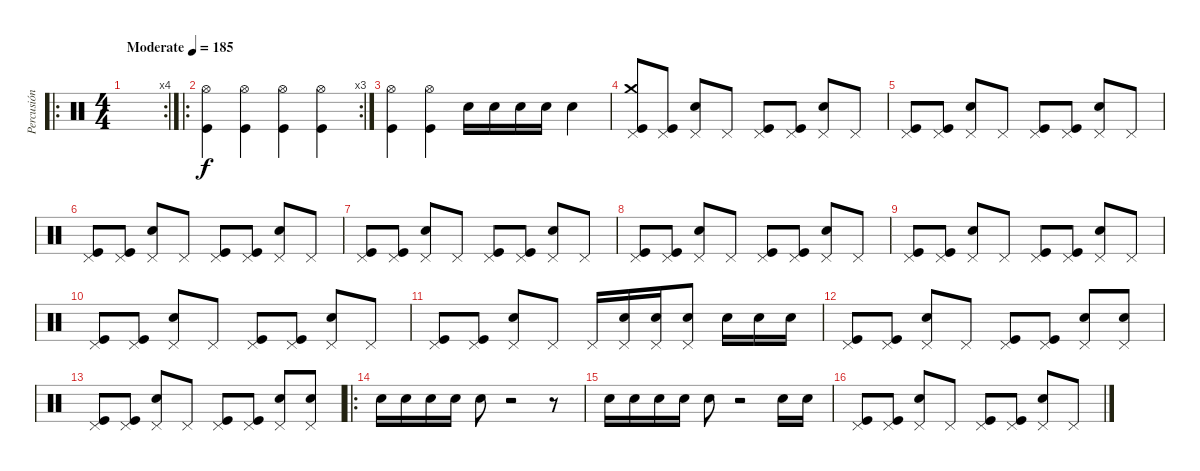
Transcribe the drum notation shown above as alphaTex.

\track ("Percusión" "Percusión") {instrument percussion}
\staff {score}
\articulation defaults
\ro
\rc 4
\ts (4 4)
\tempo (185 "Moderate")
\clef neutral
\ks c
|
\ro
\rc 3
("Hi-Hat (open)" "Kick (hit)").4 ("Hi-Hat (open)" "Kick (hit)").4 ("Hi-Hat (open)" "Kick (hit)").4 ("Hi-Hat (open)" "Kick (hit)").4 |
("Hi-Hat (open)" "Kick (hit)").4 ("Hi-Hat (open)" "Kick (hit)").4 "Electric Snare (hit)".16 "Electric Snare (hit)".16 "Electric Snare (hit)".16 "Electric Snare (hit)".16 "Electric Snare (hit)".4 |
("Crash medium (hit)" "Pedal Hi-Hat (hit)" "Kick (hit)").8 ("Pedal Hi-Hat (hit)" "Kick (hit)").8 ("Pedal Hi-Hat (hit)" "Electric Snare (hit)").8 "Pedal Hi-Hat (hit)".8 ("Pedal Hi-Hat (hit)" "Kick (hit)").8 ("Pedal Hi-Hat (hit)" "Kick (hit)").8 ("Pedal Hi-Hat (hit)" "Electric Snare (hit)").8 "Pedal Hi-Hat (hit)".8 |
("Pedal Hi-Hat (hit)" "Kick (hit)").8 ("Pedal Hi-Hat (hit)" "Kick (hit)").8 ("Pedal Hi-Hat (hit)" "Electric Snare (hit)").8 "Pedal Hi-Hat (hit)".8 ("Pedal Hi-Hat (hit)" "Kick (hit)").8 ("Pedal Hi-Hat (hit)" "Kick (hit)").8 ("Pedal Hi-Hat (hit)" "Electric Snare (hit)").8 "Pedal Hi-Hat (hit)".8 |
("Pedal Hi-Hat (hit)" "Kick (hit)").8 ("Pedal Hi-Hat (hit)" "Kick (hit)").8 ("Pedal Hi-Hat (hit)" "Electric Snare (hit)").8 "Pedal Hi-Hat (hit)".8 ("Pedal Hi-Hat (hit)" "Kick (hit)").8 ("Pedal Hi-Hat (hit)" "Kick (hit)").8 ("Pedal Hi-Hat (hit)" "Electric Snare (hit)").8 "Pedal Hi-Hat (hit)".8 |
("Pedal Hi-Hat (hit)" "Kick (hit)").8 ("Pedal Hi-Hat (hit)" "Kick (hit)").8 ("Pedal Hi-Hat (hit)" "Electric Snare (hit)").8 "Pedal Hi-Hat (hit)".8 ("Pedal Hi-Hat (hit)" "Kick (hit)").8 ("Pedal Hi-Hat (hit)" "Kick (hit)").8 ("Pedal Hi-Hat (hit)" "Electric Snare (hit)").8 "Pedal Hi-Hat (hit)".8 |
("Pedal Hi-Hat (hit)" "Kick (hit)").8 ("Pedal Hi-Hat (hit)" "Kick (hit)").8 ("Pedal Hi-Hat (hit)" "Electric Snare (hit)").8 "Pedal Hi-Hat (hit)".8 ("Pedal Hi-Hat (hit)" "Kick (hit)").8 ("Pedal Hi-Hat (hit)" "Kick (hit)").8 ("Pedal Hi-Hat (hit)" "Electric Snare (hit)").8 "Pedal Hi-Hat (hit)".8 |
("Pedal Hi-Hat (hit)" "Kick (hit)").8 ("Pedal Hi-Hat (hit)" "Kick (hit)").8 ("Pedal Hi-Hat (hit)" "Electric Snare (hit)").8 "Pedal Hi-Hat (hit)".8 ("Pedal Hi-Hat (hit)" "Kick (hit)").8 ("Pedal Hi-Hat (hit)" "Kick (hit)").8 ("Pedal Hi-Hat (hit)" "Electric Snare (hit)").8 "Pedal Hi-Hat (hit)".8 |
("Pedal Hi-Hat (hit)" "Kick (hit)").8 ("Pedal Hi-Hat (hit)" "Kick (hit)").8 ("Pedal Hi-Hat (hit)" "Electric Snare (hit)").8 "Pedal Hi-Hat (hit)".8 ("Pedal Hi-Hat (hit)" "Kick (hit)").8 ("Pedal Hi-Hat (hit)" "Kick (hit)").8 ("Pedal Hi-Hat (hit)" "Electric Snare (hit)").8 "Pedal Hi-Hat (hit)".8 |
("Pedal Hi-Hat (hit)" "Kick (hit)").8 ("Pedal Hi-Hat (hit)" "Kick (hit)").8 ("Pedal Hi-Hat (hit)" "Electric Snare (hit)").8 "Pedal Hi-Hat (hit)".8 "Pedal Hi-Hat (hit)".16 ("Pedal Hi-Hat (hit)" "Electric Snare (hit)").16 ("Pedal Hi-Hat (hit)" "Electric Snare (hit)").16 ("Pedal Hi-Hat (hit)" "Electric Snare (hit)").8 "Electric Snare (hit)".16 "Electric Snare (hit)".16 "Electric Snare (hit)".16 |
("Pedal Hi-Hat (hit)" "Kick (hit)").8 ("Pedal Hi-Hat (hit)" "Kick (hit)").8 ("Pedal Hi-Hat (hit)" "Electric Snare (hit)").8 "Pedal Hi-Hat (hit)".8 ("Pedal Hi-Hat (hit)" "Kick (hit)").8 ("Pedal Hi-Hat (hit)" "Kick (hit)").8 ("Pedal Hi-Hat (hit)" "Electric Snare (hit)").8 ("Pedal Hi-Hat (hit)" "Electric Snare (hit)").8 |
("Pedal Hi-Hat (hit)" "Kick (hit)").8 ("Pedal Hi-Hat (hit)" "Kick (hit)").8 ("Pedal Hi-Hat (hit)" "Electric Snare (hit)").8 "Pedal Hi-Hat (hit)".8 ("Pedal Hi-Hat (hit)" "Kick (hit)").8 ("Pedal Hi-Hat (hit)" "Kick (hit)").8 ("Pedal Hi-Hat (hit)" "Electric Snare (hit)").8 ("Pedal Hi-Hat (hit)" "Electric Snare (hit)").8 |
\ro "Electric Snare (hit)".16 "Electric Snare (hit)".16 "Electric Snare (hit)".16 "Electric Snare (hit)".16 "Electric Snare (hit)".8
r.2 r.8 |
"Electric Snare (hit)".16 "Electric Snare (hit)".16 "Electric Snare (hit)".16 "Electric Snare (hit)".16 "Electric Snare (hit)".8 r.2 "Electric Snare (hit)".16 "Electric Snare (hit)".16 |
("Pedal Hi-Hat (hit)" "Kick (hit)").8 ("Pedal Hi-Hat (hit)" "Kick (hit)").8 ("Pedal Hi-Hat (hit)" "Electric Snare (hit)").8 "Pedal Hi-Hat (hit)".8 ("Pedal Hi-Hat (hit)" "Kick (hit)").8 ("Pedal Hi-Hat (hit)" "Kick (hit)").8 ("Pedal Hi-Hat (hit)" "Electric Snare (hit)").8 "Pedal Hi-Hat (hit)".8
